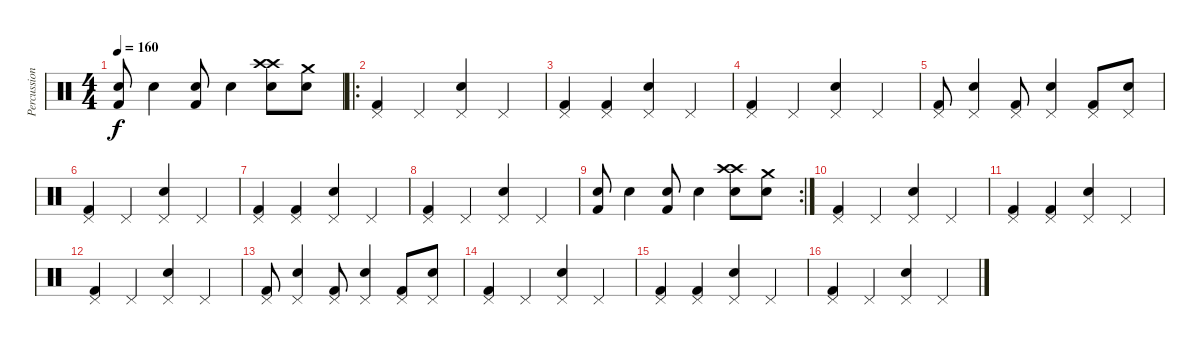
\track ("Percussion" "Percussion") {instrument percussion}
\staff {score}
\articulation defaults
\ts (4 4)
\tempo 160
\clef neutral
\ks c
("Snare (hit) 2" "Kick (hit) 2").8{dy f} "Snare (hit) 2".4 ("Snare (hit) 2" "Kick (hit) 2").8 "Snare (hit) 2".4 ("Crash high (hit)" "Snare (hit) 2" "Crash high (hit)").8 ("Snare (hit) 2" "Crash medium (hit)").8 |
\ro
("Kick (hit) 2" "Pedal Hi-Hat (hit)").4 "Pedal Hi-Hat (hit)".4 ("Snare (hit) 2" "Pedal Hi-Hat (hit)").4 "Pedal Hi-Hat (hit)".4 |
("Kick (hit) 2" "Pedal Hi-Hat (hit)").4 ("Kick (hit) 2" "Pedal Hi-Hat (hit)").4 ("Snare (hit) 2" "Pedal Hi-Hat (hit)").4 "Pedal Hi-Hat (hit)".4 |
("Kick (hit) 2" "Pedal Hi-Hat (hit)").4 "Pedal Hi-Hat (hit)".4 ("Snare (hit) 2" "Pedal Hi-Hat (hit)").4 "Pedal Hi-Hat (hit)".4 |
("Kick (hit) 2" "Pedal Hi-Hat (hit)").8 ("Snare (hit) 2" "Pedal Hi-Hat (hit)").4 ("Kick (hit) 2" "Pedal Hi-Hat (hit)").8 ("Snare (hit) 2" "Pedal Hi-Hat (hit)").4 ("Kick (hit) 2" "Pedal Hi-Hat (hit)").8 ("Snare (hit) 2" "Pedal Hi-Hat (hit)").8 |
("Kick (hit) 2" "Pedal Hi-Hat (hit)").4 "Pedal Hi-Hat (hit)".4 ("Snare (hit) 2" "Pedal Hi-Hat (hit)").4 "Pedal Hi-Hat (hit)".4 |
("Kick (hit) 2" "Pedal Hi-Hat (hit)").4 ("Kick (hit) 2" "Pedal Hi-Hat (hit)").4 ("Snare (hit) 2" "Pedal Hi-Hat (hit)").4 "Pedal Hi-Hat (hit)".4 |
("Kick (hit) 2" "Pedal Hi-Hat (hit)").4 "Pedal Hi-Hat (hit)".4 ("Snare (hit) 2" "Pedal Hi-Hat (hit)").4 "Pedal Hi-Hat (hit)".4 |
\rc 2
("Snare (hit) 2" "Kick (hit) 2").8 "Snare (hit) 2".4 ("Snare (hit) 2" "Kick (hit) 2").8 "Snare (hit) 2".4 ("Crash high (hit)" "Snare (hit) 2" "Crash high (hit)").8 ("Snare (hit) 2" "Crash medium (hit)").8 |
("Kick (hit) 2" "Pedal Hi-Hat (hit)").4 "Pedal Hi-Hat (hit)".4 ("Snare (hit) 2" "Pedal Hi-Hat (hit)").4 "Pedal Hi-Hat (hit)".4 |
("Kick (hit) 2" "Pedal Hi-Hat (hit)").4 ("Kick (hit) 2" "Pedal Hi-Hat (hit)").4 ("Snare (hit) 2" "Pedal Hi-Hat (hit)").4 "Pedal Hi-Hat (hit)".4 |
("Kick (hit) 2" "Pedal Hi-Hat (hit)").4 "Pedal Hi-Hat (hit)".4 ("Snare (hit) 2" "Pedal Hi-Hat (hit)").4 "Pedal Hi-Hat (hit)".4 |
("Kick (hit) 2" "Pedal Hi-Hat (hit)").8 ("Snare (hit) 2" "Pedal Hi-Hat (hit)").4 ("Kick (hit) 2" "Pedal Hi-Hat (hit)").8 ("Snare (hit) 2" "Pedal Hi-Hat (hit)").4 ("Kick (hit) 2" "Pedal Hi-Hat (hit)").8 ("Snare (hit) 2" "Pedal Hi-Hat (hit)").8 |
("Kick (hit) 2" "Pedal Hi-Hat (hit)").4 "Pedal Hi-Hat (hit)".4 ("Snare (hit) 2" "Pedal Hi-Hat (hit)").4 "Pedal Hi-Hat (hit)".4 |
("Kick (hit) 2" "Pedal Hi-Hat (hit)").4 ("Kick (hit) 2" "Pedal Hi-Hat (hit)").4 ("Snare (hit) 2" "Pedal Hi-Hat (hit)").4 "Pedal Hi-Hat (hit)".4 |
("Kick (hit) 2" "Pedal Hi-Hat (hit)").4 "Pedal Hi-Hat (hit)".4 ("Snare (hit) 2" "Pedal Hi-Hat (hit)").4 "Pedal Hi-Hat (hit)".4
